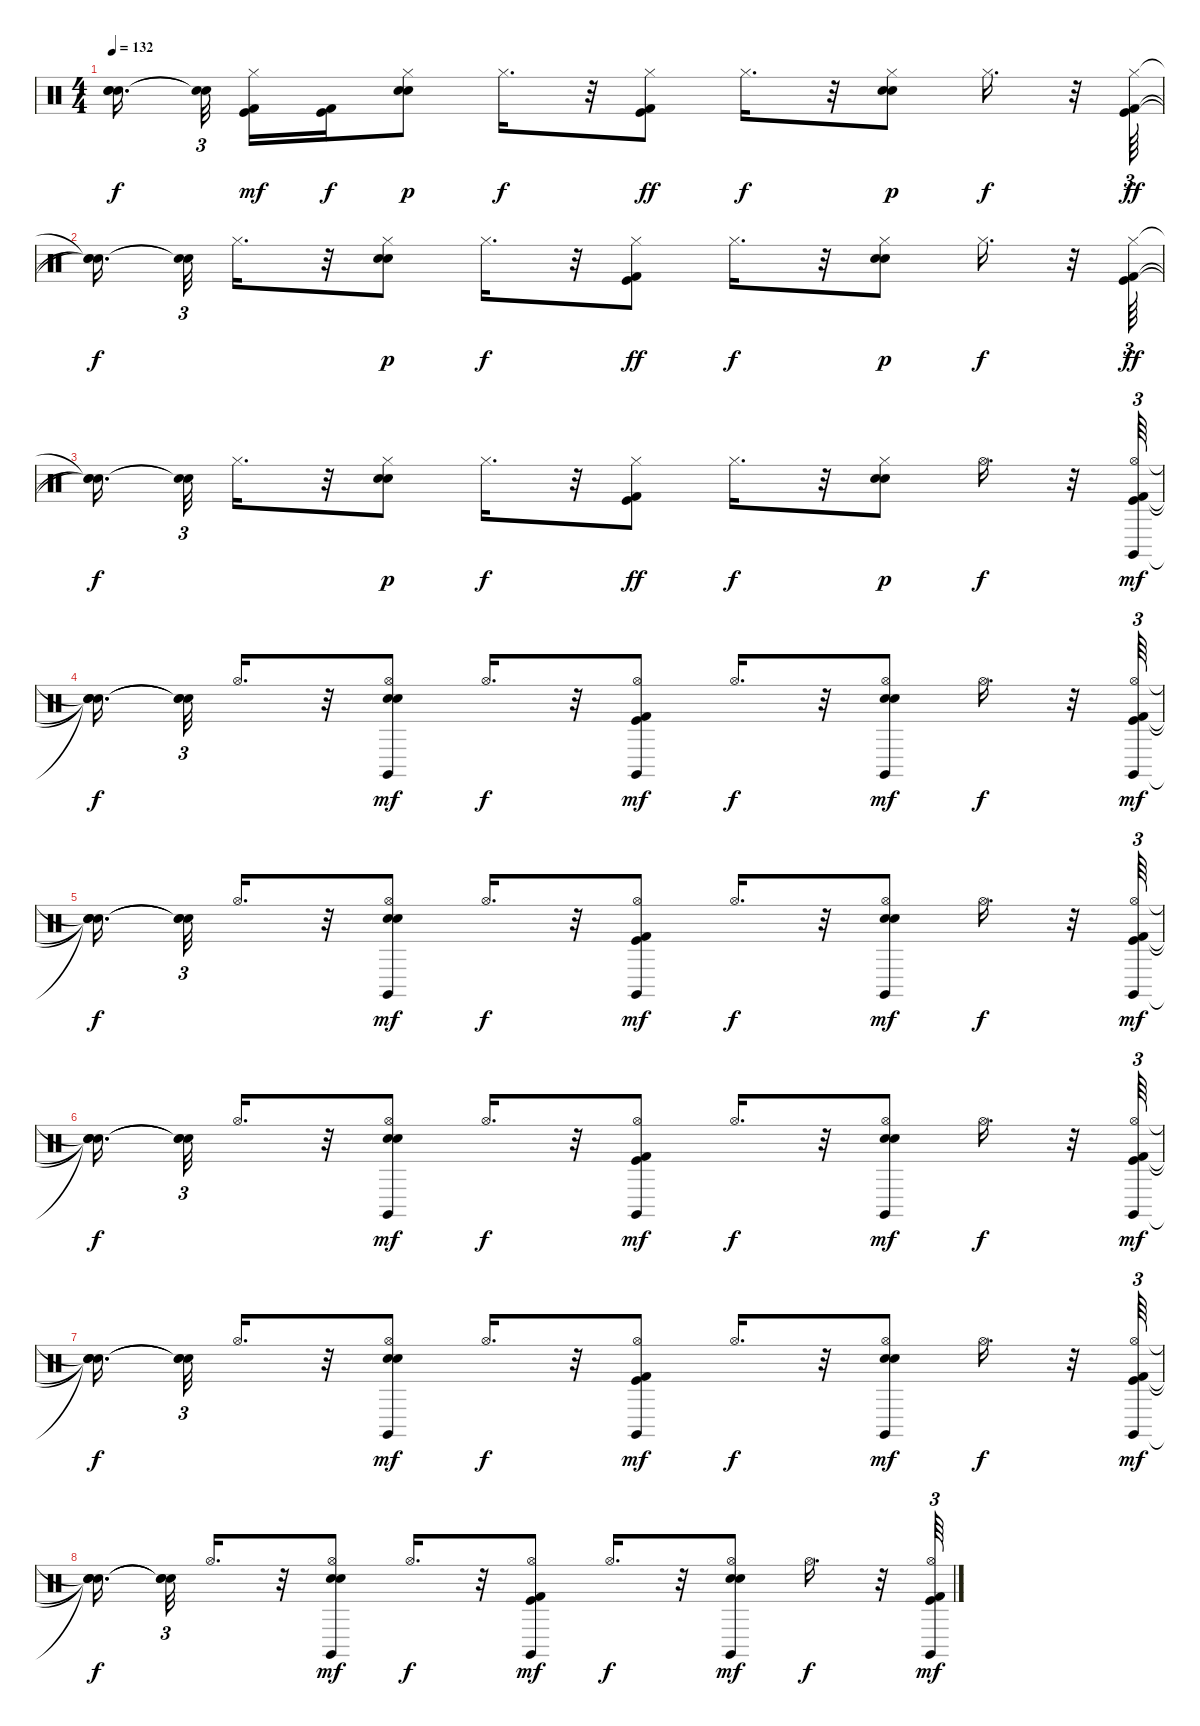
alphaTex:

\track "" {instrument percussion}
\staff {score}
\articulation defaults
\ts (4 4)
\tempo 132
\clef neutral
\ks c
("Snare (hit)"{t} "Snare (hit)"{t} "Snare (hit)"{t}).16{d dy f beam splitsecondary} ("Snare (hit)"{t} "Snare (hit)"{t}).32{tu (3 2) beam splitsecondary} ("Kick (hit) 2" "Kick (hit)" "Hi-Hat (closed)").16{dy mf} ("Kick (hit)" "Kick (hit) 2").16{dy f} ("Electric Snare (hit)" "Snare (hit) 2" "Hi-Hat (closed)").8{dy p} "Hi-Hat (closed)".16{d dy f} r.32 ("Kick (hit) 2" "Kick (hit)" "Hi-Hat (closed)").8{dy ff} "Hi-Hat (closed)".16{d dy f} r.32 ("Electric Snare (hit)" "Snare (hit) 2" "Hi-Hat (closed)").8{dy p} "Hi-Hat (closed)".16{d dy f} r.32 ("Kick (hit) 2" "Kick (hit)" "Hi-Hat (closed)").64{tu (3 2) dy ff} |
("Snare (hit)"{t} "Snare (hit)"{t} "Snare (hit)"{t}).16{d dy f beam splitsecondary} ("Snare (hit)"{t} "Snare (hit)"{t}).32{tu (3 2)} "Hi-Hat (closed)".16{d} r.32 ("Electric Snare (hit)" "Snare (hit) 2" "Hi-Hat (closed)").8{dy p} "Hi-Hat (closed)".16{d dy f} r.32 ("Kick (hit) 2" "Kick (hit)" "Hi-Hat (closed)").8{dy ff} "Hi-Hat (closed)".16{d dy f} r.32 ("Electric Snare (hit)" "Snare (hit) 2" "Hi-Hat (closed)").8{dy p} "Hi-Hat (closed)".16{d dy f} r.32 ("Kick (hit) 2" "Kick (hit)" "Hi-Hat (closed)").64{tu (3 2) dy ff} |
("Snare (hit)"{t} "Snare (hit)"{t} "Snare (hit)"{t}).16{d dy f beam splitsecondary} ("Snare (hit)"{t} "Snare (hit)"{t}).32{tu (3 2)} "Hi-Hat (closed)".16{d} r.32 ("Electric Snare (hit)" "Snare (hit) 2" "Hi-Hat (closed)").8{dy p} "Hi-Hat (closed)".16{d dy f} r.32 ("Kick (hit) 2" "Kick (hit)" "Hi-Hat (closed)").8{dy ff} "Hi-Hat (closed)".16{d dy f} r.32 ("Electric Snare (hit)" "Snare (hit) 2" "Hi-Hat (closed)").8{dy p} "Hi-Hat (open)".16{d dy f} r.32 ("Kick (hit) 2" "Kick (hit)" "Hi-Hat (open)" "Claves (hit)").64{tu (3 2) dy mf} |
("Snare (hit)"{t} "Snare (hit)"{t} "Snare (hit)"{t} "Snare (hit)"{t}).16{d dy f beam splitsecondary} ("Snare (hit)"{t} "Snare (hit)"{t} "Snare (hit)"{t}).32{tu (3 2)} "Hi-Hat (open)".16{d} r.32 ("Electric Snare (hit)" "Snare (hit) 2" "Hi-Hat (open)" "Claves (hit)").8{dy mf} "Hi-Hat (open)".16{d dy f} r.32 ("Kick (hit) 2" "Kick (hit)" "Hi-Hat (open)" "Claves (hit)").8{dy mf} "Hi-Hat (open)".16{d dy f} r.32 ("Electric Snare (hit)" "Snare (hit) 2" "Hi-Hat (open)" "Claves (hit)").8{dy mf} "Hi-Hat (open)".16{d dy f} r.32 ("Kick (hit) 2" "Kick (hit)" "Hi-Hat (open)" "Claves (hit)").64{tu (3 2) dy mf} |
("Snare (hit)"{t} "Snare (hit)"{t} "Snare (hit)"{t} "Snare (hit)"{t}).16{d dy f beam splitsecondary} ("Snare (hit)"{t} "Snare (hit)"{t} "Snare (hit)"{t}).32{tu (3 2)} "Hi-Hat (open)".16{d} r.32 ("Electric Snare (hit)" "Snare (hit) 2" "Hi-Hat (open)" "Claves (hit)").8{dy mf} "Hi-Hat (open)".16{d dy f} r.32 ("Kick (hit) 2" "Kick (hit)" "Hi-Hat (open)" "Claves (hit)").8{dy mf} "Hi-Hat (open)".16{d dy f} r.32 ("Electric Snare (hit)" "Snare (hit) 2" "Hi-Hat (open)" "Claves (hit)").8{dy mf} "Hi-Hat (open)".16{d dy f} r.32 ("Kick (hit) 2" "Kick (hit)" "Hi-Hat (open)" "Claves (hit)").64{tu (3 2) dy mf} |
("Snare (hit)"{t} "Snare (hit)"{t} "Snare (hit)"{t} "Snare (hit)"{t}).16{d dy f beam splitsecondary} ("Snare (hit)"{t} "Snare (hit)"{t} "Snare (hit)"{t}).32{tu (3 2)} "Hi-Hat (open)".16{d} r.32 ("Electric Snare (hit)" "Snare (hit) 2" "Hi-Hat (open)" "Claves (hit)").8{dy mf} "Hi-Hat (open)".16{d dy f} r.32 ("Kick (hit) 2" "Kick (hit)" "Hi-Hat (open)" "Claves (hit)").8{dy mf} "Hi-Hat (open)".16{d dy f} r.32 ("Electric Snare (hit)" "Snare (hit) 2" "Hi-Hat (open)" "Claves (hit)").8{dy mf} "Hi-Hat (open)".16{d dy f} r.32 ("Kick (hit) 2" "Kick (hit)" "Hi-Hat (open)" "Claves (hit)").64{tu (3 2) dy mf} |
("Snare (hit)"{t} "Snare (hit)"{t} "Snare (hit)"{t} "Snare (hit)"{t}).16{d dy f beam splitsecondary} ("Snare (hit)"{t} "Snare (hit)"{t} "Snare (hit)"{t}).32{tu (3 2)} "Hi-Hat (open)".16{d} r.32 ("Electric Snare (hit)" "Snare (hit) 2" "Hi-Hat (open)" "Claves (hit)").8{dy mf} "Hi-Hat (open)".16{d dy f} r.32 ("Kick (hit) 2" "Kick (hit)" "Hi-Hat (open)" "Claves (hit)").8{dy mf} "Hi-Hat (open)".16{d dy f} r.32 ("Electric Snare (hit)" "Snare (hit) 2" "Hi-Hat (open)" "Claves (hit)").8{dy mf} "Hi-Hat (open)".16{d dy f} r.32 ("Kick (hit) 2" "Kick (hit)" "Hi-Hat (open)" "Claves (hit)").64{tu (3 2) dy mf} |
("Snare (hit)"{t} "Snare (hit)"{t} "Snare (hit)"{t} "Snare (hit)"{t}).16{d dy f beam splitsecondary} ("Snare (hit)"{t} "Snare (hit)"{t} "Snare (hit)"{t}).32{tu (3 2)} "Hi-Hat (open)".16{d} r.32 ("Electric Snare (hit)" "Snare (hit) 2" "Hi-Hat (open)" "Claves (hit)").8{dy mf} "Hi-Hat (open)".16{d dy f} r.32 ("Kick (hit) 2" "Kick (hit)" "Hi-Hat (open)" "Claves (hit)").8{dy mf} "Hi-Hat (open)".16{d dy f} r.32 ("Electric Snare (hit)" "Snare (hit) 2" "Hi-Hat (open)" "Claves (hit)").8{dy mf} "Hi-Hat (open)".16{d dy f} r.32 ("Kick (hit) 2" "Kick (hit)" "Hi-Hat (open)" "Claves (hit)").64{tu (3 2) dy mf}
